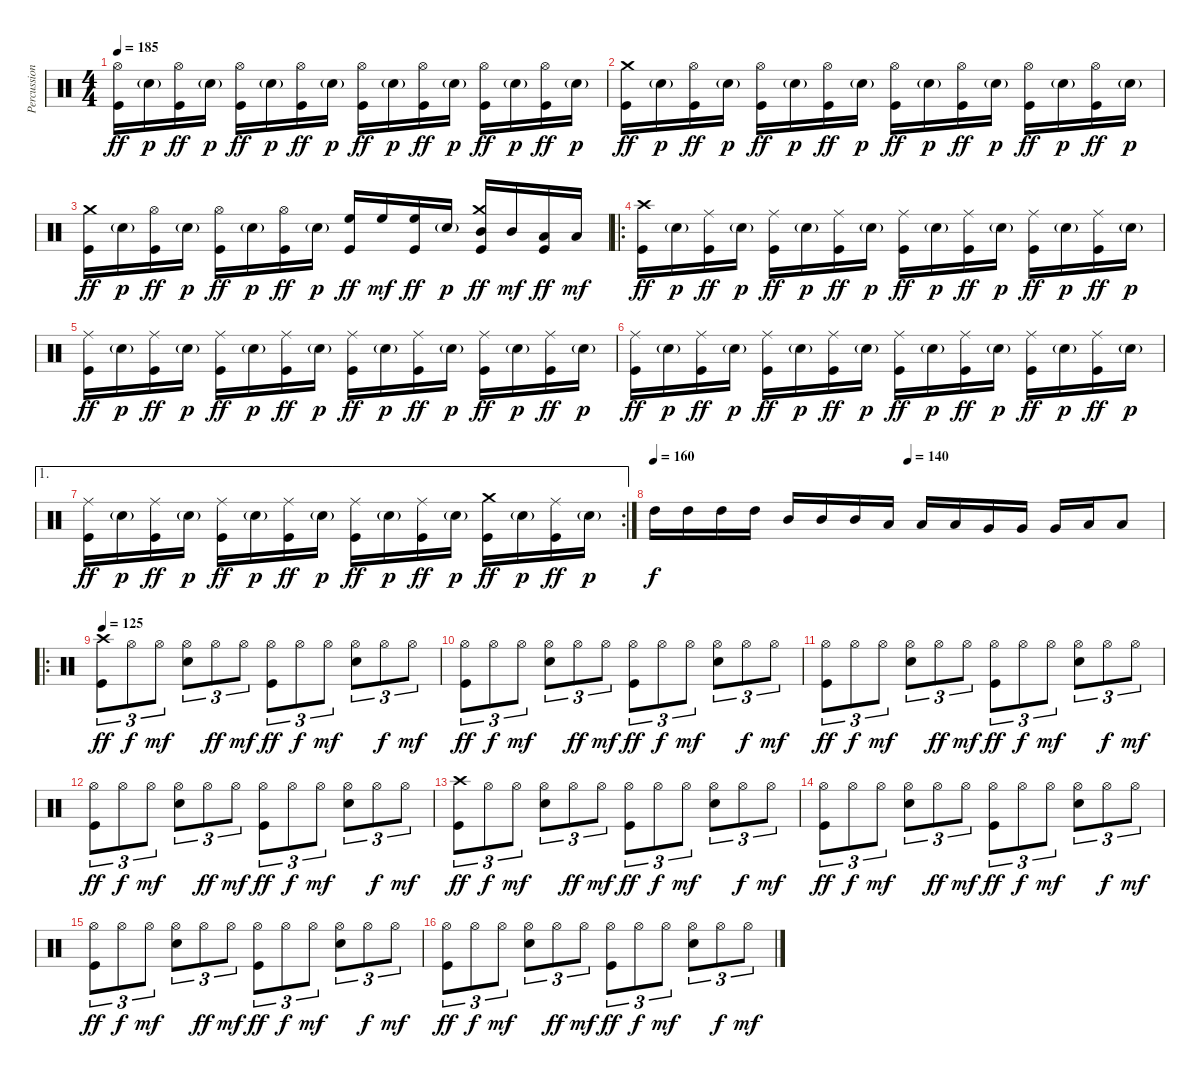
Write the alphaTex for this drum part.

\track ("Percussion" "Percussion") {instrument percussion}
\staff {score}
\articulation defaults
\ts (4 4)
\tempo 185
\clef neutral
\ks c
("Hi-Hat (open)" "Kick (hit)").16{dy ff} "Electric Snare (hit)"{g}.16{dy p} ("Hi-Hat (open)" "Kick (hit)").16{dy ff} "Electric Snare (hit)"{g}.16{dy p} ("Hi-Hat (open)" "Kick (hit)").16{dy ff} "Electric Snare (hit)"{g}.16{dy p} ("Hi-Hat (open)" "Kick (hit)").16{dy ff} "Electric Snare (hit)"{g}.16{dy p} ("Hi-Hat (open)" "Kick (hit)").16{dy ff} "Electric Snare (hit)"{g}.16{dy p} ("Hi-Hat (open)" "Kick (hit)").16{dy ff} "Electric Snare (hit)"{g}.16{dy p} ("Hi-Hat (open)" "Kick (hit)").16{dy ff} "Electric Snare (hit)"{g}.16{dy p} ("Hi-Hat (open)" "Kick (hit)").16{dy ff} "Electric Snare (hit)"{g}.16{dy p} |
("Crash medium (hit)" "Kick (hit)").16{dy ff} "Electric Snare (hit)"{g}.16{dy p} ("Hi-Hat (open)" "Kick (hit)").16{dy ff} "Electric Snare (hit)"{g}.16{dy p} ("Hi-Hat (open)" "Kick (hit)").16{dy ff} "Electric Snare (hit)"{g}.16{dy p} ("Hi-Hat (open)" "Kick (hit)").16{dy ff} "Electric Snare (hit)"{g}.16{dy p} ("Hi-Hat (open)" "Kick (hit)").16{dy ff} "Electric Snare (hit)"{g}.16{dy p} ("Hi-Hat (open)" "Kick (hit)").16{dy ff} "Electric Snare (hit)"{g}.16{dy p} ("Hi-Hat (open)" "Kick (hit)").16{dy ff} "Electric Snare (hit)"{g}.16{dy p} ("Hi-Hat (open)" "Kick (hit)").16{dy ff} "Electric Snare (hit)"{g}.16{dy p} |
("Crash medium (hit)" "Kick (hit)").16{dy ff} "Electric Snare (hit)"{g}.16{dy p} ("Hi-Hat (open)" "Kick (hit)").16{dy ff} "Electric Snare (hit)"{g}.16{dy p} ("Hi-Hat (open)" "Kick (hit)").16{dy ff} "Electric Snare (hit)"{g}.16{dy p} ("Hi-Hat (open)" "Kick (hit)").16{dy ff} "Electric Snare (hit)"{g}.16{dy p} ("High Floor Tom (hit)" "Kick (hit)").16{dy ff} "High Floor Tom (hit)".16{dy mf} ("High Floor Tom (hit)" "Kick (hit)").16{dy ff} "Electric Snare (hit)"{g}.16{dy p} ("Crash medium (hit)" "Mid Tom (hit)" "Kick (hit)").16{dy ff} "Mid Tom (hit)".16{dy mf} ("Low Tom (hit)" "Kick (hit)").16{dy ff} "Low Tom (hit)".16{dy mf} |
\ro
("Crash high (hit)" "Kick (hit)").16{dy ff} "Electric Snare (hit)"{g}.16{dy p} ("Ride (middle)" "Kick (hit)").16{dy ff} "Electric Snare (hit)"{g}.16{dy p} ("Ride (middle)" "Kick (hit)").16{dy ff} "Electric Snare (hit)"{g}.16{dy p} ("Ride (middle)" "Kick (hit)").16{dy ff} "Electric Snare (hit)"{g}.16{dy p} ("Ride (middle)" "Kick (hit)").16{dy ff} "Electric Snare (hit)"{g}.16{dy p} ("Ride (middle)" "Kick (hit)").16{dy ff} "Electric Snare (hit)"{g}.16{dy p} ("Ride (middle)" "Kick (hit)").16{dy ff} "Electric Snare (hit)"{g}.16{dy p} ("Ride (middle)" "Kick (hit)").16{dy ff} "Electric Snare (hit)"{g}.16{dy p} |
("Ride (middle)" "Kick (hit)").16{dy ff} "Electric Snare (hit)"{g}.16{dy p} ("Ride (middle)" "Kick (hit)").16{dy ff} "Electric Snare (hit)"{g}.16{dy p} ("Ride (middle)" "Kick (hit)").16{dy ff} "Electric Snare (hit)"{g}.16{dy p} ("Ride (middle)" "Kick (hit)").16{dy ff} "Electric Snare (hit)"{g}.16{dy p} ("Ride (middle)" "Kick (hit)").16{dy ff} "Electric Snare (hit)"{g}.16{dy p} ("Ride (middle)" "Kick (hit)").16{dy ff} "Electric Snare (hit)"{g}.16{dy p} ("Ride (middle)" "Kick (hit)").16{dy ff} "Electric Snare (hit)"{g}.16{dy p} ("Ride (middle)" "Kick (hit)").16{dy ff} "Electric Snare (hit)"{g}.16{dy p} |
("Ride (middle)" "Kick (hit)").16{dy ff} "Electric Snare (hit)"{g}.16{dy p} ("Ride (middle)" "Kick (hit)").16{dy ff} "Electric Snare (hit)"{g}.16{dy p} ("Ride (middle)" "Kick (hit)").16{dy ff} "Electric Snare (hit)"{g}.16{dy p} ("Ride (middle)" "Kick (hit)").16{dy ff} "Electric Snare (hit)"{g}.16{dy p} ("Ride (middle)" "Kick (hit)").16{dy ff} "Electric Snare (hit)"{g}.16{dy p} ("Ride (middle)" "Kick (hit)").16{dy ff} "Electric Snare (hit)"{g}.16{dy p} ("Ride (middle)" "Kick (hit)").16{dy ff} "Electric Snare (hit)"{g}.16{dy p} ("Ride (middle)" "Kick (hit)").16{dy ff} "Electric Snare (hit)"{g}.16{dy p} |
\ae 1
\rc 2
("Ride (middle)" "Kick (hit)").16{dy ff} "Electric Snare (hit)"{g}.16{dy p} ("Ride (middle)" "Kick (hit)").16{dy ff} "Electric Snare (hit)"{g}.16{dy p} ("Ride (middle)" "Kick (hit)").16{dy ff} "Electric Snare (hit)"{g}.16{dy p} ("Ride (middle)" "Kick (hit)").16{dy ff} "Electric Snare (hit)"{g}.16{dy p} ("Ride (middle)" "Kick (hit)").16{dy ff} "Electric Snare (hit)"{g}.16{dy p} ("Ride (middle)" "Kick (hit)").16{dy ff} "Electric Snare (hit)"{g}.16{dy p} ("Crash medium (hit)" "Kick (hit)").16{dy ff} "Electric Snare (hit)"{g}.16{dy p} ("Ride (middle)" "Kick (hit)").16{dy ff} "Electric Snare (hit)"{g}.16{dy p} |
\tempo 160
\tempo (140 0.5)
"High Tom (hit)".16{dy f} "High Tom (hit)".16 "High Tom (hit)".16 "High Tom (hit)".16 "Mid Tom (hit)".16 "Mid Tom (hit)".16 "Mid Tom (hit)".16 "Low Tom (hit)".16 "Low Tom (hit)".16 "Low Tom (hit)".16 "Very Low Tom (hit)".16 "Very Low Tom (hit)".16 "Very Low Tom (hit)".16 "Low Floor Tom (hit)".16 "Low Floor Tom (hit)".8 |
\ro
\tempo 125
("Crash high (hit)" "Kick (hit)").8{tu (3 2) dy ff} "Hi-Hat (open)".8{tu (3 2) dy f} "Hi-Hat (open)".8{tu (3 2) dy mf} ("Hi-Hat (open)" "Electric Snare (hit)").8{tu (3 2)} "Hi-Hat (open)".8{tu (3 2) dy ff} "Hi-Hat (open)".8{tu (3 2) dy mf} ("Hi-Hat (open)" "Kick (hit)").8{tu (3 2) dy ff} "Hi-Hat (open)".8{tu (3 2) dy f} "Hi-Hat (open)".8{tu (3 2) dy mf} ("Hi-Hat (open)" "Electric Snare (hit)").8{tu (3 2)} "Hi-Hat (open)".8{tu (3 2) dy f} "Hi-Hat (open)".8{tu (3 2) dy mf} |
("Hi-Hat (open)" "Kick (hit)").8{tu (3 2) dy ff} "Hi-Hat (open)".8{tu (3 2) dy f} "Hi-Hat (open)".8{tu (3 2) dy mf} ("Hi-Hat (open)" "Electric Snare (hit)").8{tu (3 2)} "Hi-Hat (open)".8{tu (3 2) dy ff} "Hi-Hat (open)".8{tu (3 2) dy mf} ("Hi-Hat (open)" "Kick (hit)").8{tu (3 2) dy ff} "Hi-Hat (open)".8{tu (3 2) dy f} "Hi-Hat (open)".8{tu (3 2) dy mf} ("Hi-Hat (open)" "Electric Snare (hit)").8{tu (3 2)} "Hi-Hat (open)".8{tu (3 2) dy f} "Hi-Hat (open)".8{tu (3 2) dy mf} |
("Hi-Hat (open)" "Kick (hit)").8{tu (3 2) dy ff} "Hi-Hat (open)".8{tu (3 2) dy f} "Hi-Hat (open)".8{tu (3 2) dy mf} ("Hi-Hat (open)" "Electric Snare (hit)").8{tu (3 2)} "Hi-Hat (open)".8{tu (3 2) dy ff} "Hi-Hat (open)".8{tu (3 2) dy mf} ("Hi-Hat (open)" "Kick (hit)").8{tu (3 2) dy ff} "Hi-Hat (open)".8{tu (3 2) dy f} "Hi-Hat (open)".8{tu (3 2) dy mf} ("Hi-Hat (open)" "Electric Snare (hit)").8{tu (3 2)} "Hi-Hat (open)".8{tu (3 2) dy f} "Hi-Hat (open)".8{tu (3 2) dy mf} |
("Hi-Hat (open)" "Kick (hit)").8{tu (3 2) dy ff} "Hi-Hat (open)".8{tu (3 2) dy f} "Hi-Hat (open)".8{tu (3 2) dy mf} ("Hi-Hat (open)" "Electric Snare (hit)").8{tu (3 2)} "Hi-Hat (open)".8{tu (3 2) dy ff} "Hi-Hat (open)".8{tu (3 2) dy mf} ("Hi-Hat (open)" "Kick (hit)").8{tu (3 2) dy ff} "Hi-Hat (open)".8{tu (3 2) dy f} "Hi-Hat (open)".8{tu (3 2) dy mf} ("Hi-Hat (open)" "Electric Snare (hit)").8{tu (3 2)} "Hi-Hat (open)".8{tu (3 2) dy f} "Hi-Hat (open)".8{tu (3 2) dy mf} |
("Crash high (hit)" "Kick (hit)").8{tu (3 2) dy ff} "Hi-Hat (open)".8{tu (3 2) dy f} "Hi-Hat (open)".8{tu (3 2) dy mf} ("Hi-Hat (open)" "Electric Snare (hit)").8{tu (3 2)} "Hi-Hat (open)".8{tu (3 2) dy ff} "Hi-Hat (open)".8{tu (3 2) dy mf} ("Hi-Hat (open)" "Kick (hit)").8{tu (3 2) dy ff} "Hi-Hat (open)".8{tu (3 2) dy f} "Hi-Hat (open)".8{tu (3 2) dy mf} ("Hi-Hat (open)" "Electric Snare (hit)").8{tu (3 2)} "Hi-Hat (open)".8{tu (3 2) dy f} "Hi-Hat (open)".8{tu (3 2) dy mf} |
("Hi-Hat (open)" "Kick (hit)").8{tu (3 2) dy ff} "Hi-Hat (open)".8{tu (3 2) dy f} "Hi-Hat (open)".8{tu (3 2) dy mf} ("Hi-Hat (open)" "Electric Snare (hit)").8{tu (3 2)} "Hi-Hat (open)".8{tu (3 2) dy ff} "Hi-Hat (open)".8{tu (3 2) dy mf} ("Hi-Hat (open)" "Kick (hit)").8{tu (3 2) dy ff} "Hi-Hat (open)".8{tu (3 2) dy f} "Hi-Hat (open)".8{tu (3 2) dy mf} ("Hi-Hat (open)" "Electric Snare (hit)").8{tu (3 2)} "Hi-Hat (open)".8{tu (3 2) dy f} "Hi-Hat (open)".8{tu (3 2) dy mf} |
("Hi-Hat (open)" "Kick (hit)").8{tu (3 2) dy ff} "Hi-Hat (open)".8{tu (3 2) dy f} "Hi-Hat (open)".8{tu (3 2) dy mf} ("Hi-Hat (open)" "Electric Snare (hit)").8{tu (3 2)} "Hi-Hat (open)".8{tu (3 2) dy ff} "Hi-Hat (open)".8{tu (3 2) dy mf} ("Hi-Hat (open)" "Kick (hit)").8{tu (3 2) dy ff} "Hi-Hat (open)".8{tu (3 2) dy f} "Hi-Hat (open)".8{tu (3 2) dy mf} ("Hi-Hat (open)" "Electric Snare (hit)").8{tu (3 2)} "Hi-Hat (open)".8{tu (3 2) dy f} "Hi-Hat (open)".8{tu (3 2) dy mf} |
("Hi-Hat (open)" "Kick (hit)").8{tu (3 2) dy ff} "Hi-Hat (open)".8{tu (3 2) dy f} "Hi-Hat (open)".8{tu (3 2) dy mf} ("Hi-Hat (open)" "Electric Snare (hit)").8{tu (3 2)} "Hi-Hat (open)".8{tu (3 2) dy ff} "Hi-Hat (open)".8{tu (3 2) dy mf} ("Hi-Hat (open)" "Kick (hit)").8{tu (3 2) dy ff} "Hi-Hat (open)".8{tu (3 2) dy f} "Hi-Hat (open)".8{tu (3 2) dy mf} ("Hi-Hat (open)" "Electric Snare (hit)").8{tu (3 2)} "Hi-Hat (open)".8{tu (3 2) dy f} "Hi-Hat (open)".8{tu (3 2) dy mf}
